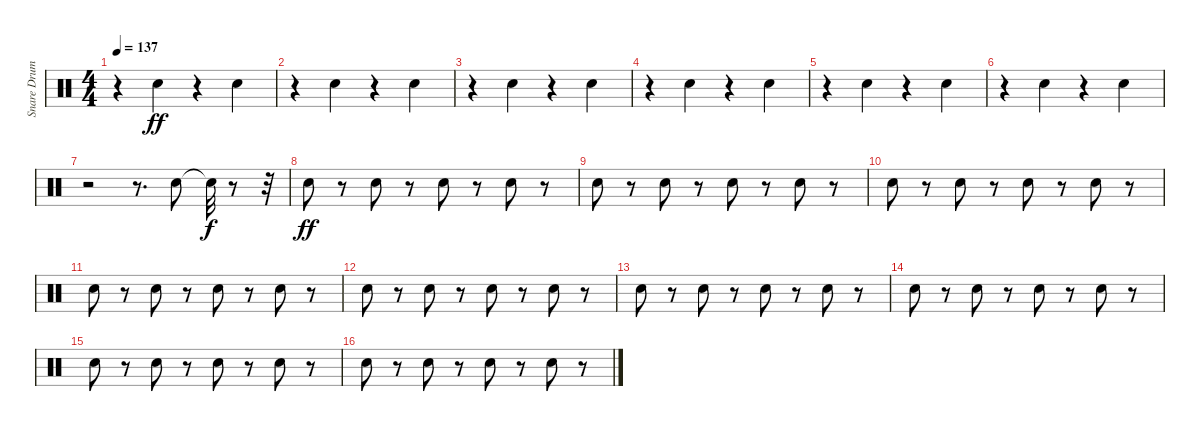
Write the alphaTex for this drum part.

\track ("Snare Drum" "Snare Drum") {instrument percussion}
\staff {score}
\articulation defaults
\ts (4 4)
\tempo 137
\clef neutral
\ks c
r.4{dy ff} "Snare (hit) 2".4 r.4 "Snare (hit) 2".4 |
r.4 "Snare (hit) 2".4 r.4 "Snare (hit) 2".4 |
r.4 "Snare (hit) 2".4 r.4 "Snare (hit) 2".4 |
r.4 "Snare (hit) 2".4 r.4 "Snare (hit) 2".4 |
r.4 "Snare (hit) 2".4 r.4 "Snare (hit) 2".4 |
r.4 "Snare (hit) 2".4 r.4 "Snare (hit) 2".4 |
r.2 r.8{d} "Snare (hit) 2".8 "Snare (hit)"{t}.32{dy f} r.8 r.32 |
"Snare (hit) 2".8{dy ff} r.8 "Snare (hit) 2".8 r.8 "Snare (hit) 2".8 r.8 "Snare (hit) 2".8 r.8 |
"Snare (hit) 2".8 r.8 "Snare (hit) 2".8 r.8 "Snare (hit) 2".8 r.8 "Snare (hit) 2".8 r.8 |
"Snare (hit) 2".8 r.8 "Snare (hit) 2".8 r.8 "Snare (hit) 2".8 r.8 "Snare (hit) 2".8 r.8 |
"Snare (hit) 2".8 r.8 "Snare (hit) 2".8 r.8 "Snare (hit) 2".8 r.8 "Snare (hit) 2".8 r.8 |
"Snare (hit) 2".8 r.8 "Snare (hit) 2".8 r.8 "Snare (hit) 2".8 r.8 "Snare (hit) 2".8 r.8 |
"Snare (hit) 2".8 r.8 "Snare (hit) 2".8 r.8 "Snare (hit) 2".8 r.8 "Snare (hit) 2".8 r.8 |
"Snare (hit) 2".8 r.8 "Snare (hit) 2".8 r.8 "Snare (hit) 2".8 r.8 "Snare (hit) 2".8 r.8 |
"Snare (hit) 2".8 r.8 "Snare (hit) 2".8 r.8 "Snare (hit) 2".8 r.8 "Snare (hit) 2".8 r.8 |
"Snare (hit) 2".8 r.8 "Snare (hit) 2".8 r.8 "Snare (hit) 2".8 r.8 "Snare (hit) 2".8 r.8
